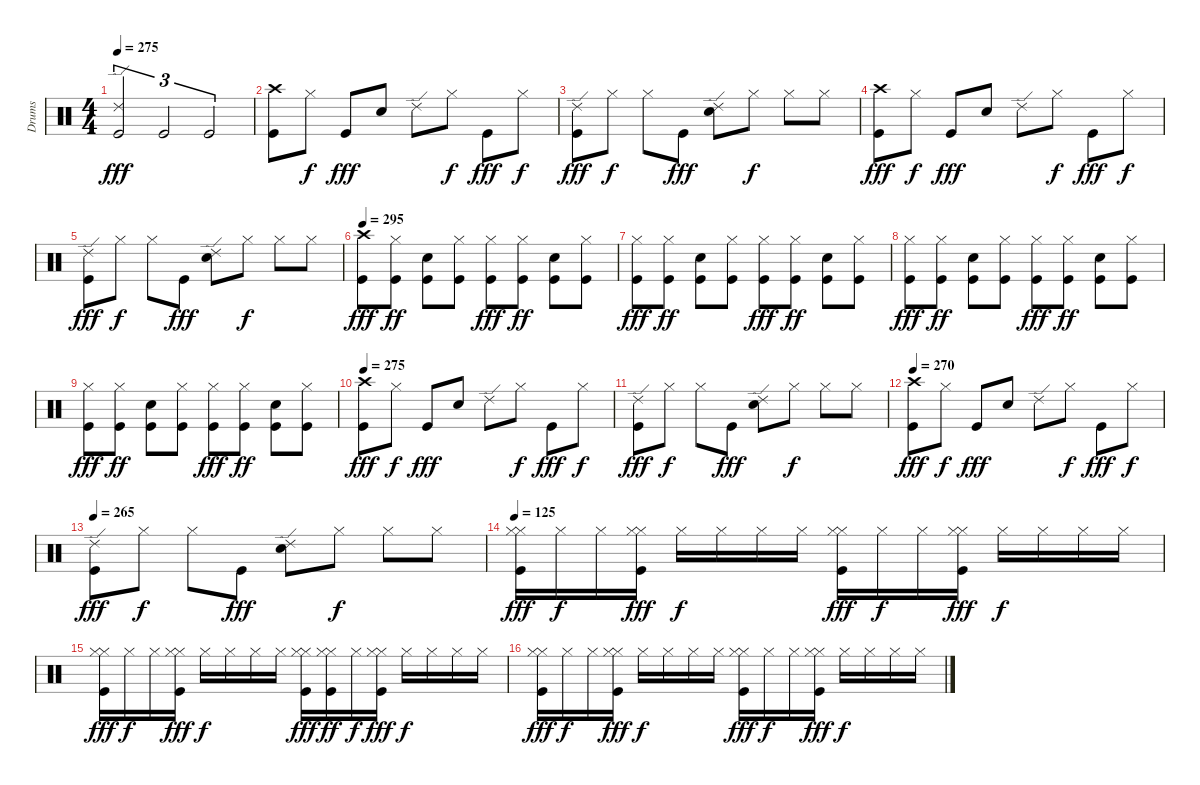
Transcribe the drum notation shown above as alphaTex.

\track ("Drums" "Drums") {instrument percussion}
\staff {score}
\articulation defaults
\ts (4 4)
\tempo 275
\clef neutral
\ks c
("Ride (edge) 2" "Kick (hit)").2{tu (3 2) dy fff} "Kick (hit)".2{tu (3 2)} "Kick (hit)".2{tu (3 2)} |
("Crash high (hit)" "Kick (hit)").8 "Hi-Hat (closed)".8{dy f} "Kick (hit)".8{dy fff} "Snare (hit) 2".8 "Ride (edge) 2".8 "Hi-Hat (closed)".8{dy f} "Kick (hit)".8{dy fff} "Hi-Hat (closed)".8{dy f} |
("Ride (edge) 2" "Kick (hit)").8{dy fff} "Hi-Hat (closed)".8{dy f} "Hi-Hat (closed)".8 "Kick (hit)".8{dy fff} ("Ride (edge) 2" "Snare (hit) 2").8 "Hi-Hat (closed)".8{dy f} "Hi-Hat (closed)".8 "Hi-Hat (closed)".8 |
("Crash high (hit)" "Kick (hit)").8{dy fff} "Hi-Hat (closed)".8{dy f} "Kick (hit)".8{dy fff} "Snare (hit) 2".8 "Ride (edge) 2".8 "Hi-Hat (closed)".8{dy f} "Kick (hit)".8{dy fff} "Hi-Hat (closed)".8{dy f} |
("Ride (edge) 2" "Kick (hit)").8{dy fff} "Hi-Hat (closed)".8{dy f} "Hi-Hat (closed)".8 "Kick (hit)".8{dy fff} ("Ride (edge) 2" "Snare (hit) 2").8 "Hi-Hat (closed)".8{dy f} "Hi-Hat (closed)".8 "Hi-Hat (closed)".8 |
\tempo 295
("Crash high (hit)" "Kick (hit)").8{dy fff} ("Hi-Hat (closed)" "Kick (hit)").8{dy ff} ("Snare (hit) 2" "Kick (hit)").8 ("Hi-Hat (closed)" "Kick (hit)").8 ("Hi-Hat (closed)" "Kick (hit)").8{dy fff} ("Hi-Hat (closed)" "Kick (hit)").8{dy ff} ("Snare (hit) 2" "Kick (hit)").8 ("Hi-Hat (closed)" "Kick (hit)").8 |
("Hi-Hat (closed)" "Kick (hit)").8{dy fff} ("Hi-Hat (closed)" "Kick (hit)").8{dy ff} ("Snare (hit) 2" "Kick (hit)").8 ("Hi-Hat (closed)" "Kick (hit)").8 ("Hi-Hat (closed)" "Kick (hit)").8{dy fff} ("Hi-Hat (closed)" "Kick (hit)").8{dy ff} ("Snare (hit) 2" "Kick (hit)").8 ("Hi-Hat (closed)" "Kick (hit)").8 |
("Hi-Hat (closed)" "Kick (hit)").8{dy fff} ("Hi-Hat (closed)" "Kick (hit)").8{dy ff} ("Snare (hit) 2" "Kick (hit)").8 ("Hi-Hat (closed)" "Kick (hit)").8 ("Hi-Hat (closed)" "Kick (hit)").8{dy fff} ("Hi-Hat (closed)" "Kick (hit)").8{dy ff} ("Snare (hit) 2" "Kick (hit)").8 ("Hi-Hat (closed)" "Kick (hit)").8 |
("Hi-Hat (closed)" "Kick (hit)").8{dy fff} ("Hi-Hat (closed)" "Kick (hit)").8{dy ff} ("Snare (hit) 2" "Kick (hit)").8 ("Hi-Hat (closed)" "Kick (hit)").8 ("Hi-Hat (closed)" "Kick (hit)").8{dy fff} ("Hi-Hat (closed)" "Kick (hit)").8{dy ff} ("Snare (hit) 2" "Kick (hit)").8 ("Hi-Hat (closed)" "Kick (hit)").8 |
\tempo 275
("Crash high (hit)" "Kick (hit)").8{dy fff} "Hi-Hat (closed)".8{dy f} "Kick (hit)".8{dy fff} "Snare (hit) 2".8 "Ride (edge) 2".8 "Hi-Hat (closed)".8{dy f} "Kick (hit)".8{dy fff} "Hi-Hat (closed)".8{dy f} |
("Ride (edge) 2" "Kick (hit)").8{dy fff} "Hi-Hat (closed)".8{dy f} "Hi-Hat (closed)".8 "Kick (hit)".8{dy fff} ("Ride (edge) 2" "Snare (hit) 2").8 "Hi-Hat (closed)".8{dy f} "Hi-Hat (closed)".8 "Hi-Hat (closed)".8 |
\tempo 270
("Crash high (hit)" "Kick (hit)").8{dy fff} "Hi-Hat (closed)".8{dy f} "Kick (hit)".8{dy fff} "Snare (hit) 2".8 "Ride (edge) 2".8 "Hi-Hat (closed)".8{dy f} "Kick (hit)".8{dy fff} "Hi-Hat (closed)".8{dy f} |
\tempo 265
("Ride (edge) 2" "Kick (hit)").8{dy fff} "Hi-Hat (closed)".8{dy f} "Hi-Hat (closed)".8 "Kick (hit)".8{dy fff} ("Ride (edge) 2" "Snare (hit) 2").8 "Hi-Hat (closed)".8{dy f} "Hi-Hat (closed)".8 "Hi-Hat (closed)".8 |
\tempo 125
("Hi-Hat (closed)" "Hi-Hat (closed)" "Kick (hit)").16{dy fff} "Hi-Hat (closed)".16{dy f} "Hi-Hat (closed)".16 ("Hi-Hat (closed)" "Hi-Hat (closed)" "Kick (hit)").16{dy fff} "Hi-Hat (closed)".16{dy f} "Hi-Hat (closed)".16 "Hi-Hat (closed)".16 "Hi-Hat (closed)".16 ("Hi-Hat (closed)" "Hi-Hat (closed)" "Kick (hit)").16{dy fff} "Hi-Hat (closed)".16{dy f} "Hi-Hat (closed)".16 ("Hi-Hat (closed)" "Hi-Hat (closed)" "Kick (hit)").16{dy fff} "Hi-Hat (closed)".16{dy f} "Hi-Hat (closed)".16 "Hi-Hat (closed)".16 "Hi-Hat (closed)".16 |
("Hi-Hat (closed)" "Hi-Hat (closed)" "Kick (hit)").16{dy fff} "Hi-Hat (closed)".16{dy f} "Hi-Hat (closed)".16 ("Hi-Hat (closed)" "Hi-Hat (closed)" "Kick (hit)").16{dy fff} "Hi-Hat (closed)".16{dy f} "Hi-Hat (closed)".16 "Hi-Hat (closed)".16 "Hi-Hat (closed)".16 ("Hi-Hat (closed)" "Hi-Hat (closed)" "Kick (hit)").16{dy fff} ("Hi-Hat (closed)" "Hi-Hat (closed)" "Kick (hit)").16{dy ff} "Hi-Hat (closed)".16{dy f} ("Hi-Hat (closed)" "Hi-Hat (closed)" "Kick (hit)").16{dy fff} "Hi-Hat (closed)".16{dy f} "Hi-Hat (closed)".16 "Hi-Hat (closed)".16 "Hi-Hat (closed)".16 |
("Hi-Hat (closed)" "Hi-Hat (closed)" "Kick (hit)").16{dy fff} "Hi-Hat (closed)".16{dy f} "Hi-Hat (closed)".16 ("Hi-Hat (closed)" "Hi-Hat (closed)" "Kick (hit)").16{dy fff} "Hi-Hat (closed)".16{dy f} "Hi-Hat (closed)".16 "Hi-Hat (closed)".16 "Hi-Hat (closed)".16 ("Hi-Hat (closed)" "Hi-Hat (closed)" "Kick (hit)").16{dy fff} "Hi-Hat (closed)".16{dy f} "Hi-Hat (closed)".16 ("Hi-Hat (closed)" "Hi-Hat (closed)" "Kick (hit)").16{dy fff} "Hi-Hat (closed)".16{dy f} "Hi-Hat (closed)".16 "Hi-Hat (closed)".16 "Hi-Hat (closed)".16
